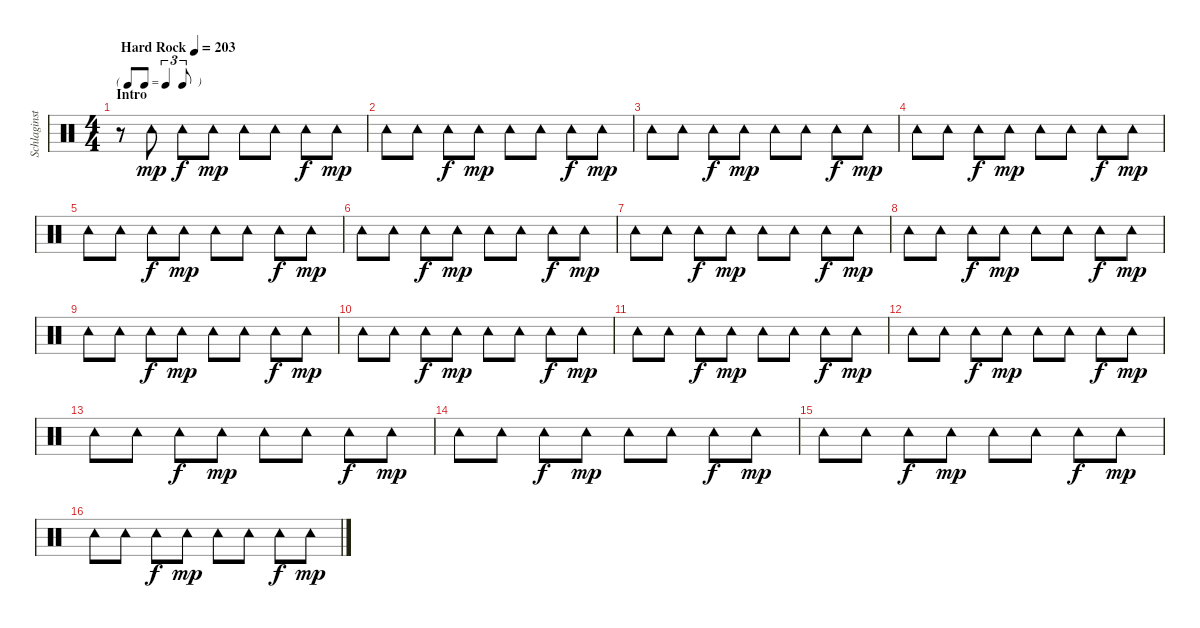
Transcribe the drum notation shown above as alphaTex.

\track ("Schlaginstrumente - Auswahl" "Schlaginst") {instrument percussion}
\staff {score}
\articulation defaults
\ts (4 4)
\tf triplet8th
\section ("" "Intro")
\tempo (203 "Hard Rock")
\clef neutral
\ks c
r.8{dy mp} "Tambourine (hit)".8 "Tambourine (hit)".8{dy f} "Tambourine (hit)".8{dy mp} "Tambourine (hit)".8 "Tambourine (hit)".8 "Tambourine (hit)".8{dy f} "Tambourine (hit)".8{dy mp} |
"Tambourine (hit)".8 "Tambourine (hit)".8 "Tambourine (hit)".8{dy f} "Tambourine (hit)".8{dy mp} "Tambourine (hit)".8 "Tambourine (hit)".8 "Tambourine (hit)".8{dy f} "Tambourine (hit)".8{dy mp} |
"Tambourine (hit)".8 "Tambourine (hit)".8 "Tambourine (hit)".8{dy f} "Tambourine (hit)".8{dy mp} "Tambourine (hit)".8 "Tambourine (hit)".8 "Tambourine (hit)".8{dy f} "Tambourine (hit)".8{dy mp} |
"Tambourine (hit)".8 "Tambourine (hit)".8 "Tambourine (hit)".8{dy f} "Tambourine (hit)".8{dy mp} "Tambourine (hit)".8 "Tambourine (hit)".8 "Tambourine (hit)".8{dy f} "Tambourine (hit)".8{dy mp} |
"Tambourine (hit)".8 "Tambourine (hit)".8 "Tambourine (hit)".8{dy f} "Tambourine (hit)".8{dy mp} "Tambourine (hit)".8 "Tambourine (hit)".8 "Tambourine (hit)".8{dy f} "Tambourine (hit)".8{dy mp} |
"Tambourine (hit)".8 "Tambourine (hit)".8 "Tambourine (hit)".8{dy f} "Tambourine (hit)".8{dy mp} "Tambourine (hit)".8 "Tambourine (hit)".8 "Tambourine (hit)".8{dy f} "Tambourine (hit)".8{dy mp} |
"Tambourine (hit)".8 "Tambourine (hit)".8 "Tambourine (hit)".8{dy f} "Tambourine (hit)".8{dy mp} "Tambourine (hit)".8 "Tambourine (hit)".8 "Tambourine (hit)".8{dy f} "Tambourine (hit)".8{dy mp} |
"Tambourine (hit)".8 "Tambourine (hit)".8 "Tambourine (hit)".8{dy f} "Tambourine (hit)".8{dy mp} "Tambourine (hit)".8 "Tambourine (hit)".8 "Tambourine (hit)".8{dy f} "Tambourine (hit)".8{dy mp} |
"Tambourine (hit)".8 "Tambourine (hit)".8 "Tambourine (hit)".8{dy f} "Tambourine (hit)".8{dy mp} "Tambourine (hit)".8 "Tambourine (hit)".8 "Tambourine (hit)".8{dy f} "Tambourine (hit)".8{dy mp} |
"Tambourine (hit)".8 "Tambourine (hit)".8 "Tambourine (hit)".8{dy f} "Tambourine (hit)".8{dy mp} "Tambourine (hit)".8 "Tambourine (hit)".8 "Tambourine (hit)".8{dy f} "Tambourine (hit)".8{dy mp} |
"Tambourine (hit)".8 "Tambourine (hit)".8 "Tambourine (hit)".8{dy f} "Tambourine (hit)".8{dy mp} "Tambourine (hit)".8 "Tambourine (hit)".8 "Tambourine (hit)".8{dy f} "Tambourine (hit)".8{dy mp} |
"Tambourine (hit)".8 "Tambourine (hit)".8 "Tambourine (hit)".8{dy f} "Tambourine (hit)".8{dy mp} "Tambourine (hit)".8 "Tambourine (hit)".8 "Tambourine (hit)".8{dy f} "Tambourine (hit)".8{dy mp} |
"Tambourine (hit)".8 "Tambourine (hit)".8 "Tambourine (hit)".8{dy f} "Tambourine (hit)".8{dy mp} "Tambourine (hit)".8 "Tambourine (hit)".8 "Tambourine (hit)".8{dy f} "Tambourine (hit)".8{dy mp} |
"Tambourine (hit)".8 "Tambourine (hit)".8 "Tambourine (hit)".8{dy f} "Tambourine (hit)".8{dy mp} "Tambourine (hit)".8 "Tambourine (hit)".8 "Tambourine (hit)".8{dy f} "Tambourine (hit)".8{dy mp} |
"Tambourine (hit)".8 "Tambourine (hit)".8 "Tambourine (hit)".8{dy f} "Tambourine (hit)".8{dy mp} "Tambourine (hit)".8 "Tambourine (hit)".8 "Tambourine (hit)".8{dy f} "Tambourine (hit)".8{dy mp} |
"Tambourine (hit)".8 "Tambourine (hit)".8 "Tambourine (hit)".8{dy f} "Tambourine (hit)".8{dy mp} "Tambourine (hit)".8 "Tambourine (hit)".8 "Tambourine (hit)".8{dy f} "Tambourine (hit)".8{dy mp}
